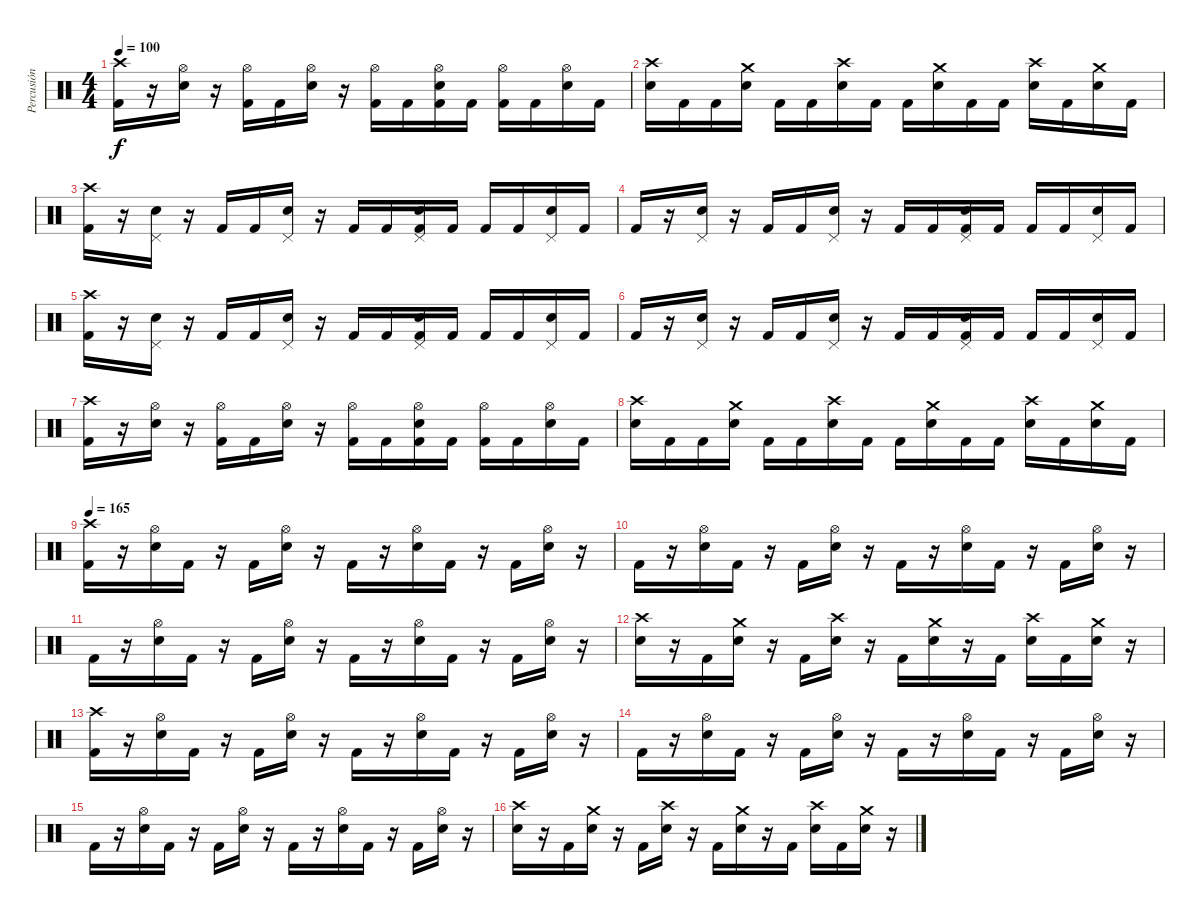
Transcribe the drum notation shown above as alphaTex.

\track ("Percusión" "Percusión") {instrument percussion}
\staff {score}
\articulation defaults
\ts (4 4)
\tempo 100
\clef neutral
\ks c
("Crash high (hit)" "Kick (hit) 2").16{dy f} r.16 ("Hi-Hat (open)" "Electric Snare (hit)").16 r.16 ("Hi-Hat (open)" "Kick (hit) 2").16 "Kick (hit) 2".16 ("Hi-Hat (open)" "Electric Snare (hit)").16 r.16 ("Hi-Hat (open)" "Kick (hit) 2").16 "Kick (hit) 2".16 ("Hi-Hat (open)" "Electric Snare (hit)" "Kick (hit) 2").16 "Kick (hit) 2".16 ("Hi-Hat (open)" "Kick (hit) 2").16 "Kick (hit) 2".16 ("Hi-Hat (open)" "Electric Snare (hit)").16 "Kick (hit) 2".16 |
("Crash high (hit)" "Electric Snare (hit)").16 "Kick (hit) 2".16 "Kick (hit) 2".16 ("Crash medium (hit)" "Electric Snare (hit)").16 "Kick (hit) 2".16 "Kick (hit) 2".16 ("Crash high (hit)" "Electric Snare (hit)").16 "Kick (hit) 2".16 "Kick (hit) 2".16 ("Crash medium (hit)" "Electric Snare (hit)").16 "Kick (hit) 2".16 "Kick (hit) 2".16 ("Crash high (hit)" "Electric Snare (hit)").16 "Kick (hit) 2".16 ("Crash medium (hit)" "Electric Snare (hit)").16 "Kick (hit) 2".16 |
("Crash high (hit)" "Kick (hit) 2").16 r.16 ("Pedal Hi-Hat (hit)" "Electric Snare (hit)").16 r.16 "Kick (hit) 2".16 "Kick (hit) 2".16 ("Pedal Hi-Hat (hit)" "Electric Snare (hit)").16 r.16 "Kick (hit) 2".16 "Kick (hit) 2".16 ("Pedal Hi-Hat (hit)" "Electric Snare (hit)" "Kick (hit) 2").16 "Kick (hit) 2".16 "Kick (hit) 2".16 "Kick (hit) 2".16 ("Pedal Hi-Hat (hit)" "Electric Snare (hit)").16 "Kick (hit) 2".16 |
"Kick (hit) 2".16 r.16 ("Pedal Hi-Hat (hit)" "Electric Snare (hit)").16 r.16 "Kick (hit) 2".16 "Kick (hit) 2".16 ("Pedal Hi-Hat (hit)" "Electric Snare (hit)").16 r.16 "Kick (hit) 2".16 "Kick (hit) 2".16 ("Pedal Hi-Hat (hit)" "Electric Snare (hit)" "Kick (hit) 2").16 "Kick (hit) 2".16 "Kick (hit) 2".16 "Kick (hit) 2".16 ("Pedal Hi-Hat (hit)" "Electric Snare (hit)").16 "Kick (hit) 2".16 |
("Crash high (hit)" "Kick (hit) 2").16 r.16 ("Pedal Hi-Hat (hit)" "Electric Snare (hit)").16 r.16 "Kick (hit) 2".16 "Kick (hit) 2".16 ("Pedal Hi-Hat (hit)" "Electric Snare (hit)").16 r.16 "Kick (hit) 2".16 "Kick (hit) 2".16 ("Pedal Hi-Hat (hit)" "Electric Snare (hit)" "Kick (hit) 2").16 "Kick (hit) 2".16 "Kick (hit) 2".16 "Kick (hit) 2".16 ("Pedal Hi-Hat (hit)" "Electric Snare (hit)").16 "Kick (hit) 2".16 |
"Kick (hit) 2".16 r.16 ("Pedal Hi-Hat (hit)" "Electric Snare (hit)").16 r.16 "Kick (hit) 2".16 "Kick (hit) 2".16 ("Pedal Hi-Hat (hit)" "Electric Snare (hit)").16 r.16 "Kick (hit) 2".16 "Kick (hit) 2".16 ("Pedal Hi-Hat (hit)" "Electric Snare (hit)" "Kick (hit) 2").16 "Kick (hit) 2".16 "Kick (hit) 2".16 "Kick (hit) 2".16 ("Pedal Hi-Hat (hit)" "Electric Snare (hit)").16 "Kick (hit) 2".16 |
("Crash high (hit)" "Kick (hit) 2").16 r.16 ("Hi-Hat (open)" "Electric Snare (hit)").16 r.16 ("Hi-Hat (open)" "Kick (hit) 2").16 "Kick (hit) 2".16 ("Hi-Hat (open)" "Electric Snare (hit)").16 r.16 ("Hi-Hat (open)" "Kick (hit) 2").16 "Kick (hit) 2".16 ("Hi-Hat (open)" "Electric Snare (hit)" "Kick (hit) 2").16 "Kick (hit) 2".16 ("Hi-Hat (open)" "Kick (hit) 2").16 "Kick (hit) 2".16 ("Hi-Hat (open)" "Electric Snare (hit)").16 "Kick (hit) 2".16 |
("Crash high (hit)" "Electric Snare (hit)").16 "Kick (hit) 2".16 "Kick (hit) 2".16 ("Crash medium (hit)" "Electric Snare (hit)").16 "Kick (hit) 2".16 "Kick (hit) 2".16 ("Crash high (hit)" "Electric Snare (hit)").16 "Kick (hit) 2".16 "Kick (hit) 2".16 ("Crash medium (hit)" "Electric Snare (hit)").16 "Kick (hit) 2".16 "Kick (hit) 2".16 ("Crash high (hit)" "Electric Snare (hit)").16 "Kick (hit) 2".16 ("Crash medium (hit)" "Electric Snare (hit)").16 "Kick (hit) 2".16 |
\tempo 165
("Crash high (hit)" "Kick (hit) 2").16 r.16 ("Hi-Hat (open)" "Electric Snare (hit)").16 "Kick (hit) 2".16 r.16 "Kick (hit) 2".16 ("Hi-Hat (open)" "Electric Snare (hit)").16 r.16 "Kick (hit) 2".16 r.16 ("Hi-Hat (open)" "Electric Snare (hit)").16 "Kick (hit) 2".16 r.16 "Kick (hit) 2".16 ("Hi-Hat (open)" "Electric Snare (hit)").16 r.16 |
"Kick (hit) 2".16 r.16 ("Hi-Hat (open)" "Electric Snare (hit)").16 "Kick (hit) 2".16 r.16 "Kick (hit) 2".16 ("Hi-Hat (open)" "Electric Snare (hit)").16 r.16 "Kick (hit) 2".16 r.16 ("Hi-Hat (open)" "Electric Snare (hit)").16 "Kick (hit) 2".16 r.16 "Kick (hit) 2".16 ("Hi-Hat (open)" "Electric Snare (hit)").16 r.16 |
"Kick (hit) 2".16 r.16 ("Hi-Hat (open)" "Electric Snare (hit)").16 "Kick (hit) 2".16 r.16 "Kick (hit) 2".16 ("Hi-Hat (open)" "Electric Snare (hit)").16 r.16 "Kick (hit) 2".16 r.16 ("Hi-Hat (open)" "Electric Snare (hit)").16 "Kick (hit) 2".16 r.16 "Kick (hit) 2".16 ("Hi-Hat (open)" "Electric Snare (hit)").16 r.16 |
("Crash high (hit)" "Electric Snare (hit)").16 r.16 "Kick (hit) 2".16 ("Crash medium (hit)" "Electric Snare (hit)").16 r.16 "Kick (hit) 2".16 ("Crash high (hit)" "Electric Snare (hit)").16 r.16 "Kick (hit) 2".16 ("Crash medium (hit)" "Electric Snare (hit)").16 r.16 "Kick (hit) 2".16 ("Crash high (hit)" "Electric Snare (hit)").16 "Kick (hit) 2".16 ("Crash medium (hit)" "Electric Snare (hit)").16 r.16 |
("Crash high (hit)" "Kick (hit) 2").16 r.16 ("Hi-Hat (open)" "Electric Snare (hit)").16 "Kick (hit) 2".16 r.16 "Kick (hit) 2".16 ("Hi-Hat (open)" "Electric Snare (hit)").16 r.16 "Kick (hit) 2".16 r.16 ("Hi-Hat (open)" "Electric Snare (hit)").16 "Kick (hit) 2".16 r.16 "Kick (hit) 2".16 ("Hi-Hat (open)" "Electric Snare (hit)").16 r.16 |
"Kick (hit) 2".16 r.16 ("Hi-Hat (open)" "Electric Snare (hit)").16 "Kick (hit) 2".16 r.16 "Kick (hit) 2".16 ("Hi-Hat (open)" "Electric Snare (hit)").16 r.16 "Kick (hit) 2".16 r.16 ("Hi-Hat (open)" "Electric Snare (hit)").16 "Kick (hit) 2".16 r.16 "Kick (hit) 2".16 ("Hi-Hat (open)" "Electric Snare (hit)").16 r.16 |
"Kick (hit) 2".16 r.16 ("Hi-Hat (open)" "Electric Snare (hit)").16 "Kick (hit) 2".16 r.16 "Kick (hit) 2".16 ("Hi-Hat (open)" "Electric Snare (hit)").16 r.16 "Kick (hit) 2".16 r.16 ("Hi-Hat (open)" "Electric Snare (hit)").16 "Kick (hit) 2".16 r.16 "Kick (hit) 2".16 ("Hi-Hat (open)" "Electric Snare (hit)").16 r.16 |
("Crash high (hit)" "Electric Snare (hit)").16 r.16 "Kick (hit) 2".16 ("Crash medium (hit)" "Electric Snare (hit)").16 r.16 "Kick (hit) 2".16 ("Crash high (hit)" "Electric Snare (hit)").16 r.16 "Kick (hit) 2".16 ("Crash medium (hit)" "Electric Snare (hit)").16 r.16 "Kick (hit) 2".16 ("Crash high (hit)" "Electric Snare (hit)").16 "Kick (hit) 2".16 ("Crash medium (hit)" "Electric Snare (hit)").16 r.16
